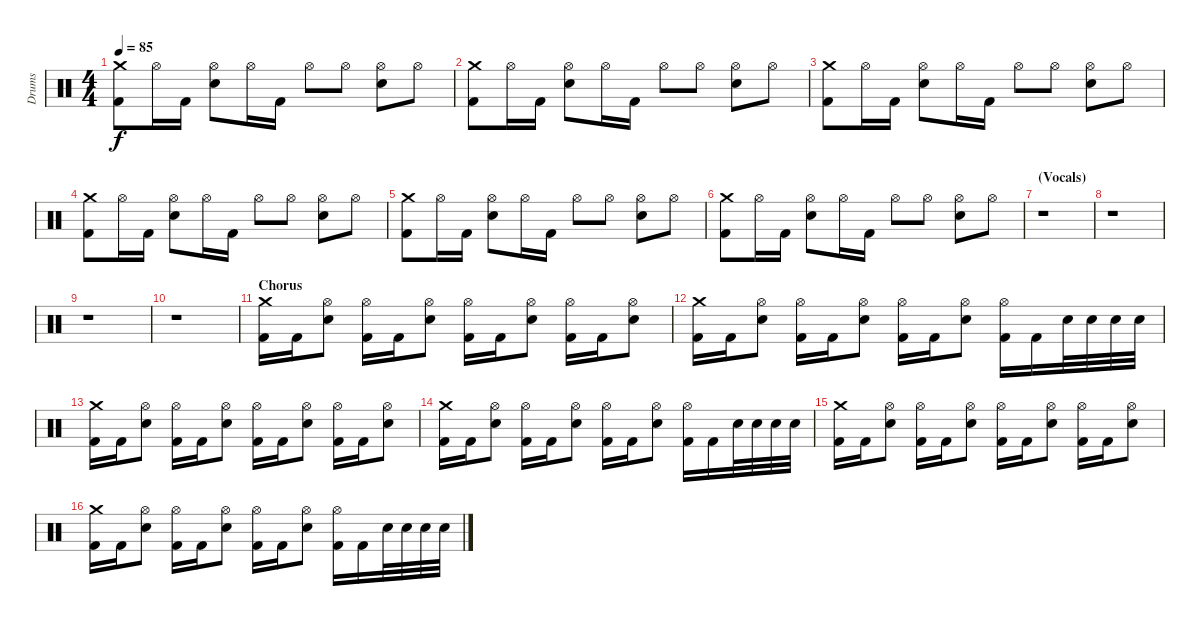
\track ("Drums" "Drums") {instrument percussion}
\staff {score}
\articulation defaults
\ts (4 4)
\tempo 85
\clef neutral
\ks c
("Crash medium (hit)" "Kick (hit) 2").8{dy f} "Hi-Hat (open)".16 "Kick (hit) 2".16 ("Hi-Hat (open)" "Electric Snare (hit)").8 "Hi-Hat (open)".16 "Kick (hit) 2".16 "Hi-Hat (open)".8 "Hi-Hat (open)".8 ("Hi-Hat (open)" "Electric Snare (hit)").8 "Hi-Hat (open)".8 |
("Crash medium (hit)" "Kick (hit) 2").8 "Hi-Hat (open)".16 "Kick (hit) 2".16 ("Hi-Hat (open)" "Electric Snare (hit)").8 "Hi-Hat (open)".16 "Kick (hit) 2".16 "Hi-Hat (open)".8 "Hi-Hat (open)".8 ("Hi-Hat (open)" "Electric Snare (hit)").8 "Hi-Hat (open)".8 |
("Crash medium (hit)" "Kick (hit) 2").8 "Hi-Hat (open)".16 "Kick (hit) 2".16 ("Hi-Hat (open)" "Electric Snare (hit)").8 "Hi-Hat (open)".16 "Kick (hit) 2".16 "Hi-Hat (open)".8 "Hi-Hat (open)".8 ("Hi-Hat (open)" "Electric Snare (hit)").8 "Hi-Hat (open)".8 |
("Crash medium (hit)" "Kick (hit) 2").8 "Hi-Hat (open)".16 "Kick (hit) 2".16 ("Hi-Hat (open)" "Electric Snare (hit)").8 "Hi-Hat (open)".16 "Kick (hit) 2".16 "Hi-Hat (open)".8 "Hi-Hat (open)".8 ("Hi-Hat (open)" "Electric Snare (hit)").8 "Hi-Hat (open)".8 |
("Crash medium (hit)" "Kick (hit) 2").8 "Hi-Hat (open)".16 "Kick (hit) 2".16 ("Hi-Hat (open)" "Electric Snare (hit)").8 "Hi-Hat (open)".16 "Kick (hit) 2".16 "Hi-Hat (open)".8 "Hi-Hat (open)".8 ("Hi-Hat (open)" "Electric Snare (hit)").8 "Hi-Hat (open)".8 |
("Crash medium (hit)" "Kick (hit) 2").8 "Hi-Hat (open)".16 "Kick (hit) 2".16 ("Hi-Hat (open)" "Electric Snare (hit)").8 "Hi-Hat (open)".16 "Kick (hit) 2".16 "Hi-Hat (open)".8 "Hi-Hat (open)".8 ("Hi-Hat (open)" "Electric Snare (hit)").8 "Hi-Hat (open)".8 |
\section ("" "(Vocals)")
r.1 |
r.1 |
r.1 |
r.1 |
\section ("" "Chorus")
("Crash medium (hit)" "Kick (hit) 2").16 "Kick (hit) 2".16 ("Hi-Hat (open)" "Electric Snare (hit)").8 ("Hi-Hat (open)" "Kick (hit) 2").16 "Kick (hit) 2".16 ("Hi-Hat (open)" "Electric Snare (hit)").8 ("Hi-Hat (open)" "Kick (hit) 2").16 "Kick (hit) 2".16 ("Hi-Hat (open)" "Electric Snare (hit)").8 ("Hi-Hat (open)" "Kick (hit) 2").16 "Kick (hit) 2".16 ("Hi-Hat (open)" "Electric Snare (hit)").8 |
("Crash medium (hit)" "Kick (hit) 2").16 "Kick (hit) 2".16 ("Hi-Hat (open)" "Electric Snare (hit)").8 ("Hi-Hat (open)" "Kick (hit) 2").16 "Kick (hit) 2".16 ("Hi-Hat (open)" "Electric Snare (hit)").8 ("Hi-Hat (open)" "Kick (hit) 2").16 "Kick (hit) 2".16 ("Hi-Hat (open)" "Electric Snare (hit)").8 ("Hi-Hat (open)" "Kick (hit) 2").16 "Kick (hit) 2".16 "Electric Snare (hit)".32 "Electric Snare (hit)".32 "Electric Snare (hit)".32 "Electric Snare (hit)".32 |
("Crash medium (hit)" "Kick (hit) 2").16 "Kick (hit) 2".16 ("Hi-Hat (open)" "Electric Snare (hit)").8 ("Hi-Hat (open)" "Kick (hit) 2").16 "Kick (hit) 2".16 ("Hi-Hat (open)" "Electric Snare (hit)").8 ("Hi-Hat (open)" "Kick (hit) 2").16 "Kick (hit) 2".16 ("Hi-Hat (open)" "Electric Snare (hit)").8 ("Hi-Hat (open)" "Kick (hit) 2").16 "Kick (hit) 2".16 ("Hi-Hat (open)" "Electric Snare (hit)").8 |
("Crash medium (hit)" "Kick (hit) 2").16 "Kick (hit) 2".16 ("Hi-Hat (open)" "Electric Snare (hit)").8 ("Hi-Hat (open)" "Kick (hit) 2").16 "Kick (hit) 2".16 ("Hi-Hat (open)" "Electric Snare (hit)").8 ("Hi-Hat (open)" "Kick (hit) 2").16 "Kick (hit) 2".16 ("Hi-Hat (open)" "Electric Snare (hit)").8 ("Hi-Hat (open)" "Kick (hit) 2").16 "Kick (hit) 2".16 "Electric Snare (hit)".32 "Electric Snare (hit)".32 "Electric Snare (hit)".32 "Electric Snare (hit)".32 |
("Crash medium (hit)" "Kick (hit) 2").16 "Kick (hit) 2".16 ("Hi-Hat (open)" "Electric Snare (hit)").8 ("Hi-Hat (open)" "Kick (hit) 2").16 "Kick (hit) 2".16 ("Hi-Hat (open)" "Electric Snare (hit)").8 ("Hi-Hat (open)" "Kick (hit) 2").16 "Kick (hit) 2".16 ("Hi-Hat (open)" "Electric Snare (hit)").8 ("Hi-Hat (open)" "Kick (hit) 2").16 "Kick (hit) 2".16 ("Hi-Hat (open)" "Electric Snare (hit)").8 |
("Crash medium (hit)" "Kick (hit) 2").16 "Kick (hit) 2".16 ("Hi-Hat (open)" "Electric Snare (hit)").8 ("Hi-Hat (open)" "Kick (hit) 2").16 "Kick (hit) 2".16 ("Hi-Hat (open)" "Electric Snare (hit)").8 ("Hi-Hat (open)" "Kick (hit) 2").16 "Kick (hit) 2".16 ("Hi-Hat (open)" "Electric Snare (hit)").8 ("Hi-Hat (open)" "Kick (hit) 2").16 "Kick (hit) 2".16 "Electric Snare (hit)".32 "Electric Snare (hit)".32 "Electric Snare (hit)".32 "Electric Snare (hit)".32
